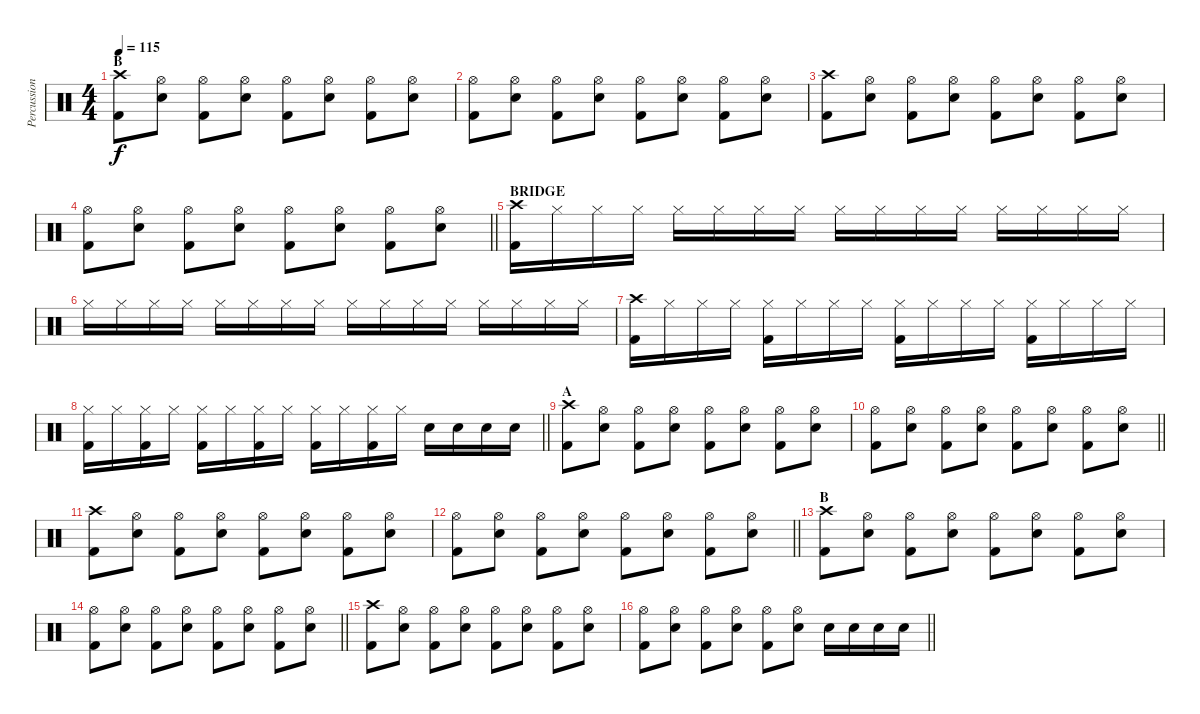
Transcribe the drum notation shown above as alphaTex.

\track ("Percussion" "Percussion") {instrument percussion}
\staff {score}
\articulation defaults
\ts (4 4)
\section ("" "B")
\tempo 115
\clef neutral
\ks c
("Crash high (hit)" "Kick (hit) 2").8{dy f} ("Hi-Hat (open)" "Snare (hit) 2").8 ("Hi-Hat (open)" "Kick (hit) 2").8 ("Hi-Hat (open)" "Snare (hit) 2").8 ("Hi-Hat (open)" "Kick (hit) 2").8 ("Hi-Hat (open)" "Snare (hit) 2").8 ("Hi-Hat (open)" "Kick (hit) 2").8 ("Hi-Hat (open)" "Snare (hit) 2").8 |
("Hi-Hat (open)" "Kick (hit) 2").8 ("Hi-Hat (open)" "Snare (hit) 2").8 ("Hi-Hat (open)" "Kick (hit) 2").8 ("Hi-Hat (open)" "Snare (hit) 2").8 ("Hi-Hat (open)" "Kick (hit) 2").8 ("Hi-Hat (open)" "Snare (hit) 2").8 ("Hi-Hat (open)" "Kick (hit) 2").8 ("Hi-Hat (open)" "Snare (hit) 2").8 |
("Crash high (hit)" "Kick (hit) 2").8 ("Hi-Hat (open)" "Snare (hit) 2").8 ("Hi-Hat (open)" "Kick (hit) 2").8 ("Hi-Hat (open)" "Snare (hit) 2").8 ("Hi-Hat (open)" "Kick (hit) 2").8 ("Hi-Hat (open)" "Snare (hit) 2").8 ("Hi-Hat (open)" "Kick (hit) 2").8 ("Hi-Hat (open)" "Snare (hit) 2").8 |
\barLineRight lightlight
("Hi-Hat (open)" "Kick (hit) 2").8 ("Hi-Hat (open)" "Snare (hit) 2").8 ("Hi-Hat (open)" "Kick (hit) 2").8 ("Hi-Hat (open)" "Snare (hit) 2").8 ("Hi-Hat (open)" "Kick (hit) 2").8 ("Hi-Hat (open)" "Snare (hit) 2").8 ("Hi-Hat (open)" "Kick (hit) 2").8 ("Hi-Hat (open)" "Snare (hit) 2").8 |
\section ("" "BRIDGE")
("Crash high (hit)" "Kick (hit) 2").16 "Hi-Hat (closed)".16 "Hi-Hat (closed)".16 "Hi-Hat (closed)".16 "Hi-Hat (closed)".16 "Hi-Hat (closed)".16 "Hi-Hat (closed)".16 "Hi-Hat (closed)".16 "Hi-Hat (closed)".16 "Hi-Hat (closed)".16 "Hi-Hat (closed)".16 "Hi-Hat (closed)".16 "Hi-Hat (closed)".16 "Hi-Hat (closed)".16 "Hi-Hat (closed)".16 "Hi-Hat (closed)".16 |
"Hi-Hat (closed)".16 "Hi-Hat (closed)".16 "Hi-Hat (closed)".16 "Hi-Hat (closed)".16 "Hi-Hat (closed)".16 "Hi-Hat (closed)".16 "Hi-Hat (closed)".16 "Hi-Hat (closed)".16 "Hi-Hat (closed)".16 "Hi-Hat (closed)".16 "Hi-Hat (closed)".16 "Hi-Hat (closed)".16 "Hi-Hat (closed)".16 "Hi-Hat (closed)".16 "Hi-Hat (closed)".16 "Hi-Hat (closed)".16 |
("Crash high (hit)" "Kick (hit) 2").16 "Hi-Hat (closed)".16 "Hi-Hat (closed)".16 "Hi-Hat (closed)".16 ("Hi-Hat (closed)" "Kick (hit) 2").16 "Hi-Hat (closed)".16 "Hi-Hat (closed)".16 "Hi-Hat (closed)".16 ("Hi-Hat (closed)" "Kick (hit) 2").16 "Hi-Hat (closed)".16 "Hi-Hat (closed)".16 "Hi-Hat (closed)".16 ("Hi-Hat (closed)" "Kick (hit) 2").16 "Hi-Hat (closed)".16 "Hi-Hat (closed)".16 "Hi-Hat (closed)".16 |
\barLineRight lightlight
("Hi-Hat (closed)" "Kick (hit) 2").16 "Hi-Hat (closed)".16 ("Hi-Hat (closed)" "Kick (hit) 2").16 "Hi-Hat (closed)".16 ("Hi-Hat (closed)" "Kick (hit) 2").16 "Hi-Hat (closed)".16 ("Hi-Hat (closed)" "Kick (hit) 2").16 "Hi-Hat (closed)".16 ("Hi-Hat (closed)" "Kick (hit) 2").16 "Hi-Hat (closed)".16 ("Hi-Hat (closed)" "Kick (hit) 2").16 "Hi-Hat (closed)".16 "Snare (hit) 2".16 "Snare (hit) 2".16 "Snare (hit) 2".16 "Snare (hit) 2".16 |
\section ("" "A")
("Crash high (hit)" "Kick (hit) 2").8 ("Hi-Hat (open)" "Snare (hit) 2").8 ("Hi-Hat (open)" "Kick (hit) 2").8 ("Hi-Hat (open)" "Snare (hit) 2").8 ("Hi-Hat (open)" "Kick (hit) 2").8 ("Hi-Hat (open)" "Snare (hit) 2").8 ("Hi-Hat (open)" "Kick (hit) 2").8 ("Hi-Hat (open)" "Snare (hit) 2").8 |
\barLineRight lightlight
("Hi-Hat (open)" "Kick (hit) 2").8 ("Hi-Hat (open)" "Snare (hit) 2").8 ("Hi-Hat (open)" "Kick (hit) 2").8 ("Hi-Hat (open)" "Snare (hit) 2").8 ("Hi-Hat (open)" "Kick (hit) 2").8 ("Hi-Hat (open)" "Snare (hit) 2").8 ("Hi-Hat (open)" "Kick (hit) 2").8 ("Hi-Hat (open)" "Snare (hit) 2").8 |
("Crash high (hit)" "Kick (hit) 2").8 ("Hi-Hat (open)" "Snare (hit) 2").8 ("Hi-Hat (open)" "Kick (hit) 2").8 ("Hi-Hat (open)" "Snare (hit) 2").8 ("Hi-Hat (open)" "Kick (hit) 2").8 ("Hi-Hat (open)" "Snare (hit) 2").8 ("Hi-Hat (open)" "Kick (hit) 2").8 ("Hi-Hat (open)" "Snare (hit) 2").8 |
\barLineRight lightlight
("Hi-Hat (open)" "Kick (hit) 2").8 ("Hi-Hat (open)" "Snare (hit) 2").8 ("Hi-Hat (open)" "Kick (hit) 2").8 ("Hi-Hat (open)" "Snare (hit) 2").8 ("Hi-Hat (open)" "Kick (hit) 2").8 ("Hi-Hat (open)" "Snare (hit) 2").8 ("Hi-Hat (open)" "Kick (hit) 2").8 ("Hi-Hat (open)" "Snare (hit) 2").8 |
\section ("" "B")
("Crash high (hit)" "Kick (hit) 2").8 ("Hi-Hat (open)" "Snare (hit) 2").8 ("Hi-Hat (open)" "Kick (hit) 2").8 ("Hi-Hat (open)" "Snare (hit) 2").8 ("Hi-Hat (open)" "Kick (hit) 2").8 ("Hi-Hat (open)" "Snare (hit) 2").8 ("Hi-Hat (open)" "Kick (hit) 2").8 ("Hi-Hat (open)" "Snare (hit) 2").8 |
\barLineRight lightlight
("Hi-Hat (open)" "Kick (hit) 2").8 ("Hi-Hat (open)" "Snare (hit) 2").8 ("Hi-Hat (open)" "Kick (hit) 2").8 ("Hi-Hat (open)" "Snare (hit) 2").8 ("Hi-Hat (open)" "Kick (hit) 2").8 ("Hi-Hat (open)" "Snare (hit) 2").8 ("Hi-Hat (open)" "Kick (hit) 2").8 ("Hi-Hat (open)" "Snare (hit) 2").8 |
("Crash high (hit)" "Kick (hit) 2").8 ("Hi-Hat (open)" "Snare (hit) 2").8 ("Hi-Hat (open)" "Kick (hit) 2").8 ("Hi-Hat (open)" "Snare (hit) 2").8 ("Hi-Hat (open)" "Kick (hit) 2").8 ("Hi-Hat (open)" "Snare (hit) 2").8 ("Hi-Hat (open)" "Kick (hit) 2").8 ("Hi-Hat (open)" "Snare (hit) 2").8 |
\barLineRight lightlight
("Hi-Hat (open)" "Kick (hit) 2").8 ("Hi-Hat (open)" "Snare (hit) 2").8 ("Hi-Hat (open)" "Kick (hit) 2").8 ("Hi-Hat (open)" "Snare (hit) 2").8 ("Hi-Hat (open)" "Kick (hit) 2").8 ("Hi-Hat (open)" "Snare (hit) 2").8 "Snare (hit) 2".16 "Snare (hit) 2".16 "Snare (hit) 2".16 "Snare (hit) 2".16
